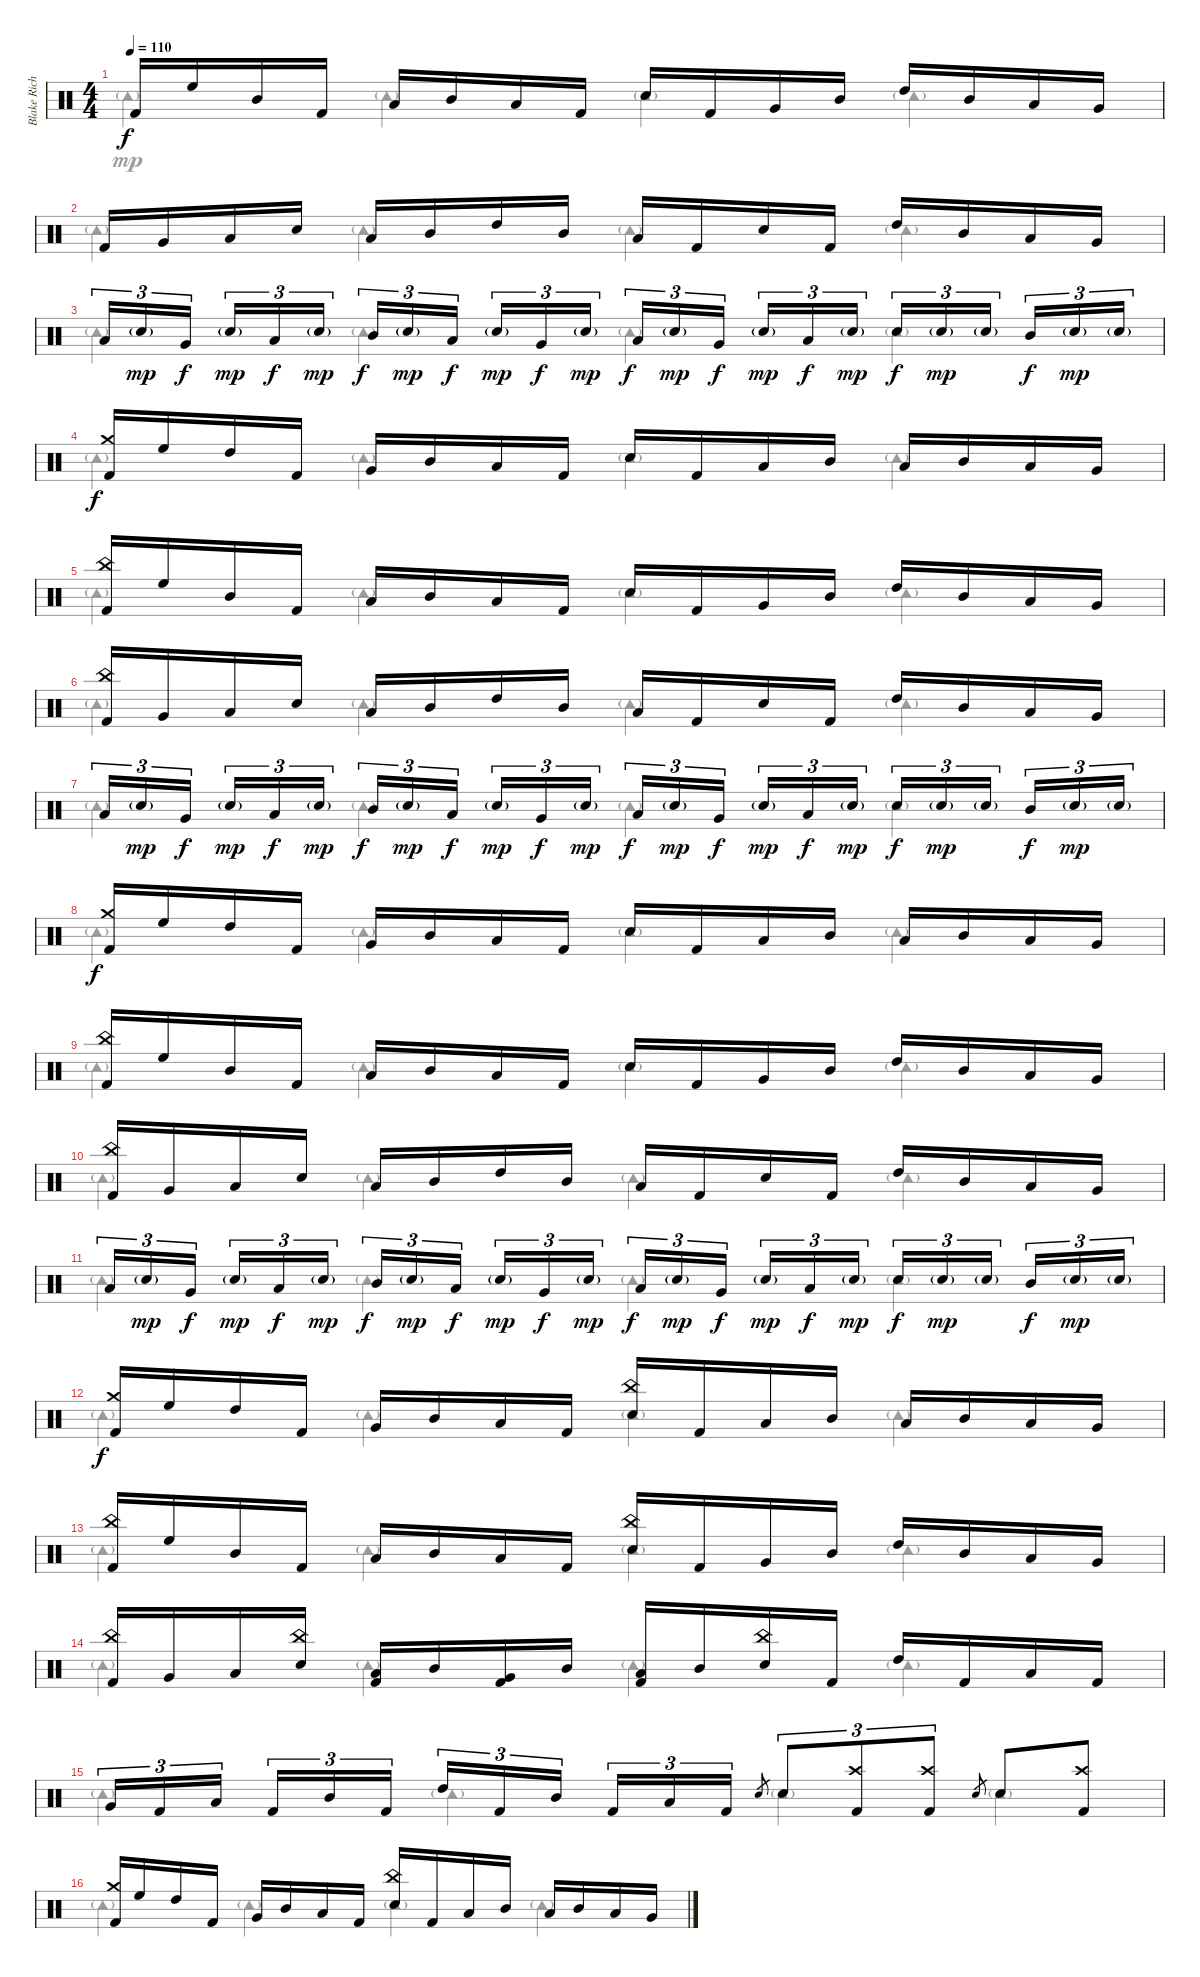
\track ("Blake Richardson" "Blake Rich") {instrument percussion}
\staff {score}
\articulation defaults
\voice
\ts (4 4)
\tempo 110
\clef neutral
\ks c "Kick (hit) 2".16{dy f} "High Floor Tom (hit)".16 "Mid Tom (hit)".16 "Kick (hit) 2".16 "Low Tom (hit)".16 "Mid Tom (hit)".16 "Low Tom (hit)".16 "Kick (hit) 2".16 "Electric Snare (hit)".16 "Kick (hit) 2".16 "Very Low Tom (hit)".16 "Mid Tom (hit)".16 "High Tom (hit)".16 "Mid Tom (hit)".16 "Low Tom (hit)".16 "Very Low Tom (hit)".16
|
"Kick (hit) 2".16 "Very Low Tom (hit)".16 "Low Tom (hit)".16 "Electric Snare (hit)".16 "Low Tom (hit)".16 "Mid Tom (hit)".16 "High Tom (hit)".16 "Mid Tom (hit)".16 "Low Tom (hit)".16 "Kick (hit) 2".16 "Electric Snare (hit)".16 "Kick (hit) 2".16 "High Tom (hit)".16 "Mid Tom (hit)".16 "Low Tom (hit)".16 "Very Low Tom (hit)".16 |
"Low Floor Tom (hit)".16{tu (3 2)} "Electric Snare (hit)"{g}.16{tu (3 2) dy mp} "Very Low Tom (hit)".16{tu (3 2) dy f beam splitsecondary} "Electric Snare (hit)"{g}.16{tu (3 2) dy mp} "Low Tom (hit)".16{tu (3 2) dy f} "Electric Snare (hit)"{g}.16{tu (3 2) dy mp} "Mid Tom (hit)".16{tu (3 2) dy f} "Electric Snare (hit)"{g}.16{tu (3 2) dy mp} "Low Tom (hit)".16{tu (3 2) dy f beam splitsecondary} "Electric Snare (hit)"{g}.16{tu (3 2) dy mp} "Very Low Tom (hit)".16{tu (3 2) dy f} "Electric Snare (hit)"{g}.16{tu (3 2) dy mp} "Low Floor Tom (hit)".16{tu (3 2) dy f} "Electric Snare (hit)"{g}.16{tu (3 2) dy mp} "Very Low Tom (hit)".16{tu (3 2) dy f beam splitsecondary} "Electric Snare (hit)"{g}.16{tu (3 2) dy mp} "Low Tom (hit)".16{tu (3 2) dy f} "Electric Snare (hit)"{g}.16{tu (3 2) dy mp} "Electric Snare (hit)".16{tu (3 2) dy f} "Electric Snare (hit)"{g}.16{tu (3 2) dy mp} "Electric Snare (hit)"{g}.16{tu (3 2) beam splitsecondary} "Mid Tom (hit)".16{tu (3 2) dy f} "Electric Snare (hit)"{g}.16{tu (3 2) dy mp} "Electric Snare (hit)"{g}.16{tu (3 2)} |
("Crash medium (hit)" "Kick (hit) 2").16{dy f} "High Floor Tom (hit)".16 "High Tom (hit)".16 "Kick (hit) 2".16 "Very Low Tom (hit)".16 "Mid Tom (hit)".16 "Low Tom (hit)".16 "Kick (hit) 2".16 "Electric Snare (hit)".16 "Kick (hit) 2".16 "Low Tom (hit)".16 "Mid Tom (hit)".16 "Low Floor Tom (hit)".16 "Mid Tom (hit)".16 "Low Tom (hit)".16 "Very Low Tom (hit)".16 |
("China (hit)" "Kick (hit) 2").16 "High Floor Tom (hit)".16 "Mid Tom (hit)".16 "Kick (hit) 2".16 "Low Tom (hit)".16 "Mid Tom (hit)".16 "Low Tom (hit)".16 "Kick (hit) 2".16 "Electric Snare (hit)".16 "Kick (hit) 2".16 "Very Low Tom (hit)".16 "Mid Tom (hit)".16 "High Tom (hit)".16 "Mid Tom (hit)".16 "Low Tom (hit)".16 "Very Low Tom (hit)".16 |
("China (hit)" "Kick (hit) 2").16 "Very Low Tom (hit)".16 "Low Tom (hit)".16 "Electric Snare (hit)".16 "Low Tom (hit)".16 "Mid Tom (hit)".16 "High Tom (hit)".16 "Mid Tom (hit)".16 "Low Tom (hit)".16 "Kick (hit) 2".16 "Electric Snare (hit)".16 "Kick (hit) 2".16 "High Tom (hit)".16 "Mid Tom (hit)".16 "Low Tom (hit)".16 "Very Low Tom (hit)".16 |
"Low Floor Tom (hit)".16{tu (3 2)} "Electric Snare (hit)"{g}.16{tu (3 2) dy mp} "Very Low Tom (hit)".16{tu (3 2) dy f beam splitsecondary} "Electric Snare (hit)"{g}.16{tu (3 2) dy mp} "Low Tom (hit)".16{tu (3 2) dy f} "Electric Snare (hit)"{g}.16{tu (3 2) dy mp} "Mid Tom (hit)".16{tu (3 2) dy f} "Electric Snare (hit)"{g}.16{tu (3 2) dy mp} "Low Tom (hit)".16{tu (3 2) dy f beam splitsecondary} "Electric Snare (hit)"{g}.16{tu (3 2) dy mp} "Very Low Tom (hit)".16{tu (3 2) dy f} "Electric Snare (hit)"{g}.16{tu (3 2) dy mp} "Low Floor Tom (hit)".16{tu (3 2) dy f} "Electric Snare (hit)"{g}.16{tu (3 2) dy mp} "Very Low Tom (hit)".16{tu (3 2) dy f beam splitsecondary} "Electric Snare (hit)"{g}.16{tu (3 2) dy mp} "Low Tom (hit)".16{tu (3 2) dy f} "Electric Snare (hit)"{g}.16{tu (3 2) dy mp} "Electric Snare (hit)".16{tu (3 2) dy f} "Electric Snare (hit)"{g}.16{tu (3 2) dy mp} "Electric Snare (hit)"{g}.16{tu (3 2) beam splitsecondary} "Mid Tom (hit)".16{tu (3 2) dy f} "Electric Snare (hit)"{g}.16{tu (3 2) dy mp} "Electric Snare (hit)"{g}.16{tu (3 2)} |
("Crash medium (hit)" "Kick (hit) 2").16{dy f} "High Floor Tom (hit)".16 "High Tom (hit)".16 "Kick (hit) 2".16 "Very Low Tom (hit)".16 "Mid Tom (hit)".16 "Low Tom (hit)".16 "Kick (hit) 2".16 "Electric Snare (hit)".16 "Kick (hit) 2".16 "Low Tom (hit)".16 "Mid Tom (hit)".16 "Low Floor Tom (hit)".16 "Mid Tom (hit)".16 "Low Tom (hit)".16 "Very Low Tom (hit)".16 |
("China (hit)" "Kick (hit) 2").16 "High Floor Tom (hit)".16 "Mid Tom (hit)".16 "Kick (hit) 2".16 "Low Tom (hit)".16 "Mid Tom (hit)".16 "Low Tom (hit)".16 "Kick (hit) 2".16 "Electric Snare (hit)".16 "Kick (hit) 2".16 "Very Low Tom (hit)".16 "Mid Tom (hit)".16 "High Tom (hit)".16 "Mid Tom (hit)".16 "Low Tom (hit)".16 "Very Low Tom (hit)".16 |
("China (hit)" "Kick (hit) 2").16 "Very Low Tom (hit)".16 "Low Tom (hit)".16 "Electric Snare (hit)".16 "Low Tom (hit)".16 "Mid Tom (hit)".16 "High Tom (hit)".16 "Mid Tom (hit)".16 "Low Tom (hit)".16 "Kick (hit) 2".16 "Electric Snare (hit)".16 "Kick (hit) 2".16 "High Tom (hit)".16 "Mid Tom (hit)".16 "Low Tom (hit)".16 "Very Low Tom (hit)".16 |
"Low Floor Tom (hit)".16{tu (3 2)} "Electric Snare (hit)"{g}.16{tu (3 2) dy mp} "Very Low Tom (hit)".16{tu (3 2) dy f beam splitsecondary} "Electric Snare (hit)"{g}.16{tu (3 2) dy mp} "Low Tom (hit)".16{tu (3 2) dy f} "Electric Snare (hit)"{g}.16{tu (3 2) dy mp} "Mid Tom (hit)".16{tu (3 2) dy f} "Electric Snare (hit)"{g}.16{tu (3 2) dy mp} "Low Tom (hit)".16{tu (3 2) dy f beam splitsecondary} "Electric Snare (hit)"{g}.16{tu (3 2) dy mp} "Very Low Tom (hit)".16{tu (3 2) dy f} "Electric Snare (hit)"{g}.16{tu (3 2) dy mp} "Low Floor Tom (hit)".16{tu (3 2) dy f} "Electric Snare (hit)"{g}.16{tu (3 2) dy mp} "Very Low Tom (hit)".16{tu (3 2) dy f beam splitsecondary} "Electric Snare (hit)"{g}.16{tu (3 2) dy mp} "Low Tom (hit)".16{tu (3 2) dy f} "Electric Snare (hit)"{g}.16{tu (3 2) dy mp} "Electric Snare (hit)".16{tu (3 2) dy f} "Electric Snare (hit)"{g}.16{tu (3 2) dy mp} "Electric Snare (hit)"{g}.16{tu (3 2) beam splitsecondary} "Mid Tom (hit)".16{tu (3 2) dy f} "Electric Snare (hit)"{g}.16{tu (3 2) dy mp} "Electric Snare (hit)"{g}.16{tu (3 2)} |
("Crash medium (hit)" "Kick (hit) 2").16{dy f} "High Floor Tom (hit)".16 "High Tom (hit)".16 "Kick (hit) 2".16 "Very Low Tom (hit)".16 "Mid Tom (hit)".16 "Low Tom (hit)".16 "Kick (hit) 2".16 ("China (hit)" "Electric Snare (hit)").16 "Kick (hit) 2".16 "Low Tom (hit)".16 "Mid Tom (hit)".16 "Low Floor Tom (hit)".16 "Mid Tom (hit)".16 "Low Tom (hit)".16 "Very Low Tom (hit)".16 |
("China (hit)" "Kick (hit) 2").16 "High Floor Tom (hit)".16 "Mid Tom (hit)".16 "Kick (hit) 2".16 "Low Tom (hit)".16 "Mid Tom (hit)".16 "Low Tom (hit)".16 "Kick (hit) 2".16 ("China (hit)" "Electric Snare (hit)").16 "Kick (hit) 2".16 "Very Low Tom (hit)".16 "Mid Tom (hit)".16 "High Tom (hit)".16 "Mid Tom (hit)".16 "Low Tom (hit)".16 "Very Low Tom (hit)".16 |
("China (hit)" "Kick (hit) 2").16 "Very Low Tom (hit)".16 "Low Tom (hit)".16 ("China (hit)" "Electric Snare (hit)").16 ("Low Tom (hit)" "Kick (hit) 2").16 "Mid Tom (hit)".16 ("Very Low Tom (hit)" "Kick (hit) 2").16 "Mid Tom (hit)".16 ("Low Tom (hit)" "Kick (hit) 2").16 "Mid Tom (hit)".16 ("China (hit)" "Electric Snare (hit)").16 "Kick (hit) 2".16 "High Tom (hit)".16 "Kick (hit) 2".16 "Low Tom (hit)".16 "Kick (hit) 2".16 |
"Very Low Tom (hit)".16{tu (3 2)} "Kick (hit) 2".16{tu (3 2)} "Low Tom (hit)".16{tu (3 2) beam splitsecondary} "Kick (hit) 2".16{tu (3 2)} "Mid Tom (hit)".16{tu (3 2)} "Kick (hit) 2".16{tu (3 2)} "High Tom (hit)".16{tu (3 2)} "Kick (hit) 2".16{tu (3 2)} "Mid Tom (hit)".16{tu (3 2) beam splitsecondary} "Kick (hit) 2".16{tu (3 2)} "Low Tom (hit)".16{tu (3 2)} "Kick (hit) 2".16{tu (3 2)} "Electric Snare (hit)".8{gr} "Electric Snare (hit)".8{tu (3 2)} ("Crash high (hit)" "Kick (hit) 2").8{tu (3 2)} ("Crash high (hit)" "Kick (hit) 2").8{tu (3 2)} "Electric Snare (hit)".8{gr} "Electric Snare (hit)".8 ("Crash high (hit)" "Kick (hit) 2").8 |
("Crash medium (hit)" "Kick (hit) 2").16 "High Floor Tom (hit)".16 "High Tom (hit)".16 "Kick (hit) 2".16 "Very Low Tom (hit)".16 "Mid Tom (hit)".16 "Low Tom (hit)".16 "Kick (hit) 2".16 ("China (hit)" "Electric Snare (hit)").16 "Kick (hit) 2".16 "Low Tom (hit)".16 "Mid Tom (hit)".16 "Low Floor Tom (hit)".16 "Mid Tom (hit)".16 "Low Tom (hit)".16 "Very Low Tom (hit)".16
\voice
\clef neutral
\ottava regular
\simile none
\ks c "Tambourine (hit)"{g}.4{dy mp} "Tambourine (hit)"{g}.4 "Tambourine (hit)"{g}.4 "Tambourine (hit)"{g}.4
|
"Tambourine (hit)"{g}.4 "Tambourine (hit)"{g}.4 "Tambourine (hit)"{g}.4 "Tambourine (hit)"{g}.4 |
"Tambourine (hit)"{g}.4 "Tambourine (hit)"{g}.4 "Tambourine (hit)"{g}.4 "Tambourine (hit)"{g}.4 |
"Tambourine (hit)"{g}.4 "Tambourine (hit)"{g}.4 "Tambourine (hit)"{g}.4 "Tambourine (hit)"{g}.4 |
"Tambourine (hit)"{g}.4 "Tambourine (hit)"{g}.4 "Tambourine (hit)"{g}.4 "Tambourine (hit)"{g}.4 |
"Tambourine (hit)"{g}.4 "Tambourine (hit)"{g}.4 "Tambourine (hit)"{g}.4 "Tambourine (hit)"{g}.4 |
"Tambourine (hit)"{g}.4 "Tambourine (hit)"{g}.4 "Tambourine (hit)"{g}.4 "Tambourine (hit)"{g}.4 |
"Tambourine (hit)"{g}.4 "Tambourine (hit)"{g}.4 "Tambourine (hit)"{g}.4 "Tambourine (hit)"{g}.4 |
"Tambourine (hit)"{g}.4 "Tambourine (hit)"{g}.4 "Tambourine (hit)"{g}.4 "Tambourine (hit)"{g}.4 |
"Tambourine (hit)"{g}.4 "Tambourine (hit)"{g}.4 "Tambourine (hit)"{g}.4 "Tambourine (hit)"{g}.4 |
"Tambourine (hit)"{g}.4 "Tambourine (hit)"{g}.4 "Tambourine (hit)"{g}.4 "Tambourine (hit)"{g}.4 |
"Tambourine (hit)"{g}.4 "Tambourine (hit)"{g}.4 "Tambourine (hit)"{g}.4 "Tambourine (hit)"{g}.4 |
"Tambourine (hit)"{g}.4 "Tambourine (hit)"{g}.4 "Tambourine (hit)"{g}.4 "Tambourine (hit)"{g}.4 |
"Tambourine (hit)"{g}.4 "Tambourine (hit)"{g}.4 "Tambourine (hit)"{g}.4 "Tambourine (hit)"{g}.4 |
"Tambourine (hit)"{g}.4 "Tambourine (hit)"{g}.4 "Tambourine (hit)"{g}.4 "Tambourine (hit)"{g}.4 |
"Tambourine (hit)"{g}.4 "Tambourine (hit)"{g}.4 "Tambourine (hit)"{g}.4 "Tambourine (hit)"{g}.4
